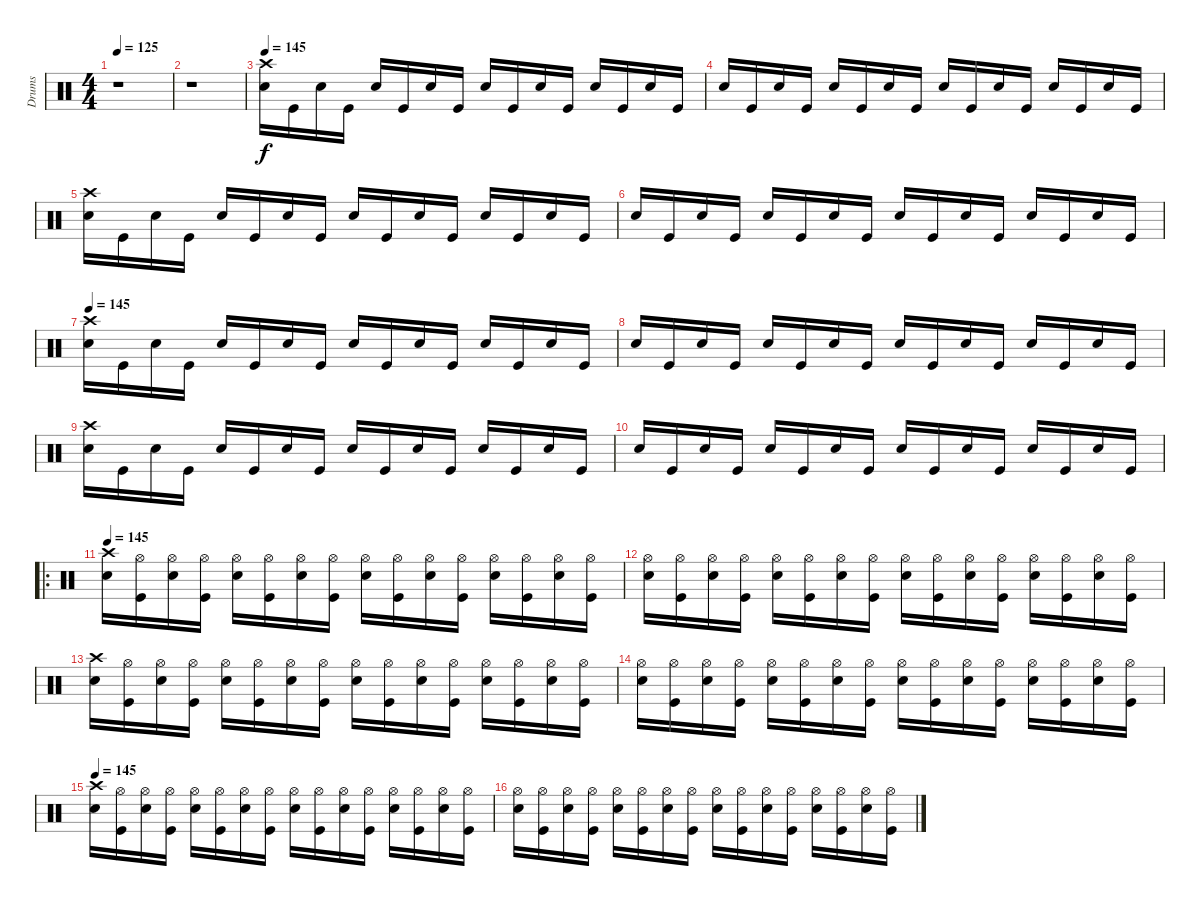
\track ("Drums" "Drums") {instrument percussion}
\staff {score}
\articulation defaults
\ts (4 4)
\tempo 125
\clef neutral
\ks c
r.1{dy f} |
r.1 |
\tempo 148
\tempo 145
("Crash high (hit)" "Electric Snare (hit)").16 "Kick (hit)".16 "Electric Snare (hit)".16 "Kick (hit)".16 "Electric Snare (hit)".16 "Kick (hit)".16 "Electric Snare (hit)".16 "Kick (hit)".16 "Electric Snare (hit)".16 "Kick (hit)".16 "Electric Snare (hit)".16 "Kick (hit)".16 "Electric Snare (hit)".16 "Kick (hit)".16 "Electric Snare (hit)".16 "Kick (hit)".16 |
"Electric Snare (hit)".16 "Kick (hit)".16 "Electric Snare (hit)".16 "Kick (hit)".16 "Electric Snare (hit)".16 "Kick (hit)".16 "Electric Snare (hit)".16 "Kick (hit)".16 "Electric Snare (hit)".16 "Kick (hit)".16 "Electric Snare (hit)".16 "Kick (hit)".16 "Electric Snare (hit)".16 "Kick (hit)".16 "Electric Snare (hit)".16 "Kick (hit)".16 |
("Crash high (hit)" "Electric Snare (hit)").16 "Kick (hit)".16 "Electric Snare (hit)".16 "Kick (hit)".16 "Electric Snare (hit)".16 "Kick (hit)".16 "Electric Snare (hit)".16 "Kick (hit)".16 "Electric Snare (hit)".16 "Kick (hit)".16 "Electric Snare (hit)".16 "Kick (hit)".16 "Electric Snare (hit)".16 "Kick (hit)".16 "Electric Snare (hit)".16 "Kick (hit)".16 |
"Electric Snare (hit)".16 "Kick (hit)".16 "Electric Snare (hit)".16 "Kick (hit)".16 "Electric Snare (hit)".16 "Kick (hit)".16 "Electric Snare (hit)".16 "Kick (hit)".16 "Electric Snare (hit)".16 "Kick (hit)".16 "Electric Snare (hit)".16 "Kick (hit)".16 "Electric Snare (hit)".16 "Kick (hit)".16 "Electric Snare (hit)".16 "Kick (hit)".16 |
\tempo 145
("Crash high (hit)" "Electric Snare (hit)").16 "Kick (hit)".16 "Electric Snare (hit)".16 "Kick (hit)".16 "Electric Snare (hit)".16 "Kick (hit)".16 "Electric Snare (hit)".16 "Kick (hit)".16 "Electric Snare (hit)".16 "Kick (hit)".16 "Electric Snare (hit)".16 "Kick (hit)".16 "Electric Snare (hit)".16 "Kick (hit)".16 "Electric Snare (hit)".16 "Kick (hit)".16 |
"Electric Snare (hit)".16 "Kick (hit)".16 "Electric Snare (hit)".16 "Kick (hit)".16 "Electric Snare (hit)".16 "Kick (hit)".16 "Electric Snare (hit)".16 "Kick (hit)".16 "Electric Snare (hit)".16 "Kick (hit)".16 "Electric Snare (hit)".16 "Kick (hit)".16 "Electric Snare (hit)".16 "Kick (hit)".16 "Electric Snare (hit)".16 "Kick (hit)".16 |
("Crash high (hit)" "Electric Snare (hit)").16 "Kick (hit)".16 "Electric Snare (hit)".16 "Kick (hit)".16 "Electric Snare (hit)".16 "Kick (hit)".16 "Electric Snare (hit)".16 "Kick (hit)".16 "Electric Snare (hit)".16 "Kick (hit)".16 "Electric Snare (hit)".16 "Kick (hit)".16 "Electric Snare (hit)".16 "Kick (hit)".16 "Electric Snare (hit)".16 "Kick (hit)".16 |
"Electric Snare (hit)".16 "Kick (hit)".16 "Electric Snare (hit)".16 "Kick (hit)".16 "Electric Snare (hit)".16 "Kick (hit)".16 "Electric Snare (hit)".16 "Kick (hit)".16 "Electric Snare (hit)".16 "Kick (hit)".16 "Electric Snare (hit)".16 "Kick (hit)".16 "Electric Snare (hit)".16 "Kick (hit)".16 "Electric Snare (hit)".16 "Kick (hit)".16 |
\ro
\tempo 145
("Crash high (hit)" "Electric Snare (hit)").16 ("Hi-Hat (open)" "Kick (hit)").16 ("Hi-Hat (open)" "Electric Snare (hit)").16 ("Hi-Hat (open)" "Kick (hit)").16 ("Hi-Hat (open)" "Electric Snare (hit)").16 ("Hi-Hat (open)" "Kick (hit)").16 ("Hi-Hat (open)" "Electric Snare (hit)").16 ("Hi-Hat (open)" "Kick (hit)").16 ("Hi-Hat (open)" "Electric Snare (hit)").16 ("Hi-Hat (open)" "Kick (hit)").16 ("Hi-Hat (open)" "Electric Snare (hit)").16 ("Hi-Hat (open)" "Kick (hit)").16 ("Hi-Hat (open)" "Electric Snare (hit)").16 ("Hi-Hat (open)" "Kick (hit)").16 ("Hi-Hat (open)" "Electric Snare (hit)").16 ("Hi-Hat (open)" "Kick (hit)").16 |
("Hi-Hat (open)" "Electric Snare (hit)").16 ("Hi-Hat (open)" "Kick (hit)").16 ("Hi-Hat (open)" "Electric Snare (hit)").16 ("Hi-Hat (open)" "Kick (hit)").16 ("Hi-Hat (open)" "Electric Snare (hit)").16 ("Hi-Hat (open)" "Kick (hit)").16 ("Hi-Hat (open)" "Electric Snare (hit)").16 ("Hi-Hat (open)" "Kick (hit)").16 ("Hi-Hat (open)" "Electric Snare (hit)").16 ("Hi-Hat (open)" "Kick (hit)").16 ("Hi-Hat (open)" "Electric Snare (hit)").16 ("Hi-Hat (open)" "Kick (hit)").16 ("Hi-Hat (open)" "Electric Snare (hit)").16 ("Hi-Hat (open)" "Kick (hit)").16 ("Hi-Hat (open)" "Electric Snare (hit)").16 ("Hi-Hat (open)" "Kick (hit)").16 |
("Crash high (hit)" "Electric Snare (hit)").16 ("Hi-Hat (open)" "Kick (hit)").16 ("Hi-Hat (open)" "Electric Snare (hit)").16 ("Hi-Hat (open)" "Kick (hit)").16 ("Hi-Hat (open)" "Electric Snare (hit)").16 ("Hi-Hat (open)" "Kick (hit)").16 ("Hi-Hat (open)" "Electric Snare (hit)").16 ("Hi-Hat (open)" "Kick (hit)").16 ("Hi-Hat (open)" "Electric Snare (hit)").16 ("Hi-Hat (open)" "Kick (hit)").16 ("Hi-Hat (open)" "Electric Snare (hit)").16 ("Hi-Hat (open)" "Kick (hit)").16 ("Hi-Hat (open)" "Electric Snare (hit)").16 ("Hi-Hat (open)" "Kick (hit)").16 ("Hi-Hat (open)" "Electric Snare (hit)").16 ("Hi-Hat (open)" "Kick (hit)").16 |
("Hi-Hat (open)" "Electric Snare (hit)").16 ("Hi-Hat (open)" "Kick (hit)").16 ("Hi-Hat (open)" "Electric Snare (hit)").16 ("Hi-Hat (open)" "Kick (hit)").16 ("Hi-Hat (open)" "Electric Snare (hit)").16 ("Hi-Hat (open)" "Kick (hit)").16 ("Hi-Hat (open)" "Electric Snare (hit)").16 ("Hi-Hat (open)" "Kick (hit)").16 ("Hi-Hat (open)" "Electric Snare (hit)").16 ("Hi-Hat (open)" "Kick (hit)").16 ("Hi-Hat (open)" "Electric Snare (hit)").16 ("Hi-Hat (open)" "Kick (hit)").16 ("Hi-Hat (open)" "Electric Snare (hit)").16 ("Hi-Hat (open)" "Kick (hit)").16 ("Hi-Hat (open)" "Electric Snare (hit)").16 ("Hi-Hat (open)" "Kick (hit)").16 |
\tempo 145
("Crash high (hit)" "Electric Snare (hit)").16 ("Hi-Hat (open)" "Kick (hit)").16 ("Hi-Hat (open)" "Electric Snare (hit)").16 ("Hi-Hat (open)" "Kick (hit)").16 ("Hi-Hat (open)" "Electric Snare (hit)").16 ("Hi-Hat (open)" "Kick (hit)").16 ("Hi-Hat (open)" "Electric Snare (hit)").16 ("Hi-Hat (open)" "Kick (hit)").16 ("Hi-Hat (open)" "Electric Snare (hit)").16 ("Hi-Hat (open)" "Kick (hit)").16 ("Hi-Hat (open)" "Electric Snare (hit)").16 ("Hi-Hat (open)" "Kick (hit)").16 ("Hi-Hat (open)" "Electric Snare (hit)").16 ("Hi-Hat (open)" "Kick (hit)").16 ("Hi-Hat (open)" "Electric Snare (hit)").16 ("Hi-Hat (open)" "Kick (hit)").16 |
("Hi-Hat (open)" "Electric Snare (hit)").16 ("Hi-Hat (open)" "Kick (hit)").16 ("Hi-Hat (open)" "Electric Snare (hit)").16 ("Hi-Hat (open)" "Kick (hit)").16 ("Hi-Hat (open)" "Electric Snare (hit)").16 ("Hi-Hat (open)" "Kick (hit)").16 ("Hi-Hat (open)" "Electric Snare (hit)").16 ("Hi-Hat (open)" "Kick (hit)").16 ("Hi-Hat (open)" "Electric Snare (hit)").16 ("Hi-Hat (open)" "Kick (hit)").16 ("Hi-Hat (open)" "Electric Snare (hit)").16 ("Hi-Hat (open)" "Kick (hit)").16 ("Hi-Hat (open)" "Electric Snare (hit)").16 ("Hi-Hat (open)" "Kick (hit)").16 ("Hi-Hat (open)" "Electric Snare (hit)").16 ("Hi-Hat (open)" "Kick (hit)").16
